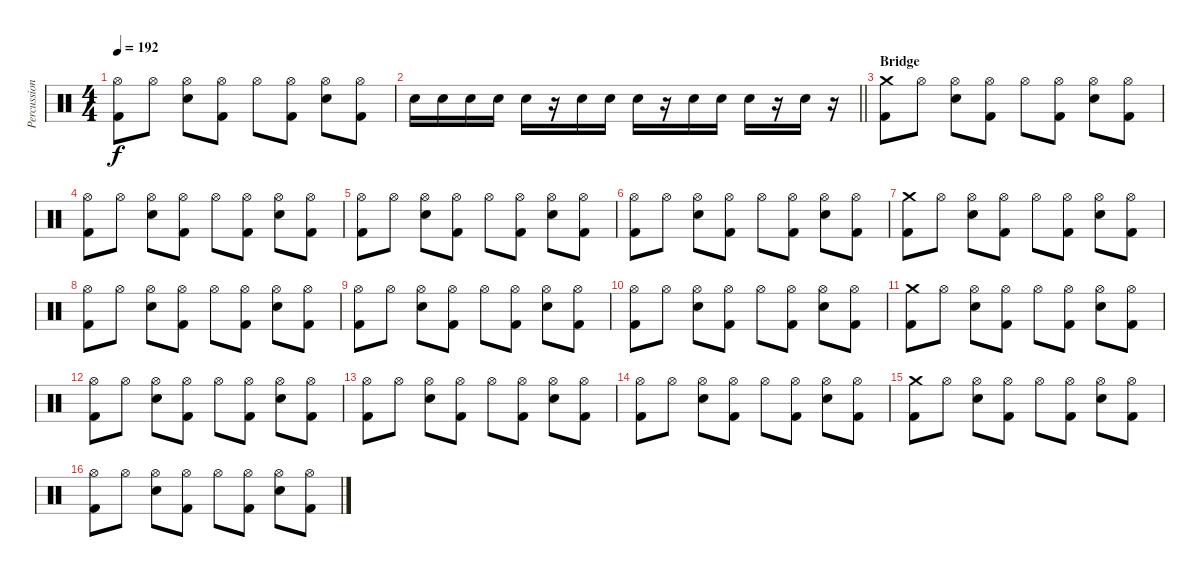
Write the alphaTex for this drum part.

\track ("Percussion" "Percussion") {instrument percussion}
\staff {score}
\articulation defaults
\ts (4 4)
\tempo 192
\clef neutral
\ks c
("Hi-Hat (open)" "Kick (hit) 2").8{dy f} "Hi-Hat (open)".8 ("Hi-Hat (open)" "Electric Snare (hit)").8 ("Hi-Hat (open)" "Kick (hit) 2").8 "Hi-Hat (open)".8 ("Hi-Hat (open)" "Kick (hit) 2").8 ("Hi-Hat (open)" "Electric Snare (hit)").8 ("Hi-Hat (open)" "Kick (hit) 2").8 |
\barLineRight lightlight "Electric Snare (hit)".16 "Electric Snare (hit)".16 "Electric Snare (hit)".16 "Electric Snare (hit)".16 "Electric Snare (hit)".16
r.16 "Electric Snare (hit)".16 "Electric Snare (hit)".16 "Electric Snare (hit)".16 r.16 "Electric Snare (hit)".16 "Electric Snare (hit)".16 "Electric Snare (hit)".16 r.16 "Electric Snare (hit)".16 r.16 |
\section ("" "Bridge")
("Crash medium (hit)" "Kick (hit) 2").8 "Hi-Hat (open)".8 ("Hi-Hat (open)" "Electric Snare (hit)").8 ("Hi-Hat (open)" "Kick (hit) 2").8 "Hi-Hat (open)".8 ("Hi-Hat (open)" "Kick (hit) 2").8 ("Hi-Hat (open)" "Electric Snare (hit)").8 ("Hi-Hat (open)" "Kick (hit) 2").8 |
("Hi-Hat (open)" "Kick (hit) 2").8 "Hi-Hat (open)".8 ("Hi-Hat (open)" "Electric Snare (hit)").8 ("Hi-Hat (open)" "Kick (hit) 2").8 "Hi-Hat (open)".8 ("Hi-Hat (open)" "Kick (hit) 2").8 ("Hi-Hat (open)" "Electric Snare (hit)").8 ("Hi-Hat (open)" "Kick (hit) 2").8 |
("Hi-Hat (open)" "Kick (hit) 2").8 "Hi-Hat (open)".8 ("Hi-Hat (open)" "Electric Snare (hit)").8 ("Hi-Hat (open)" "Kick (hit) 2").8 "Hi-Hat (open)".8 ("Hi-Hat (open)" "Kick (hit) 2").8 ("Hi-Hat (open)" "Electric Snare (hit)").8 ("Hi-Hat (open)" "Kick (hit) 2").8 |
("Hi-Hat (open)" "Kick (hit) 2").8 "Hi-Hat (open)".8 ("Hi-Hat (open)" "Electric Snare (hit)").8 ("Hi-Hat (open)" "Kick (hit) 2").8 "Hi-Hat (open)".8 ("Hi-Hat (open)" "Kick (hit) 2").8 ("Hi-Hat (open)" "Electric Snare (hit)").8 ("Hi-Hat (open)" "Kick (hit) 2").8 |
("Crash medium (hit)" "Kick (hit) 2").8 "Hi-Hat (open)".8 ("Hi-Hat (open)" "Electric Snare (hit)").8 ("Hi-Hat (open)" "Kick (hit) 2").8 "Hi-Hat (open)".8 ("Hi-Hat (open)" "Kick (hit) 2").8 ("Hi-Hat (open)" "Electric Snare (hit)").8 ("Hi-Hat (open)" "Kick (hit) 2").8 |
("Hi-Hat (open)" "Kick (hit) 2").8 "Hi-Hat (open)".8 ("Hi-Hat (open)" "Electric Snare (hit)").8 ("Hi-Hat (open)" "Kick (hit) 2").8 "Hi-Hat (open)".8 ("Hi-Hat (open)" "Kick (hit) 2").8 ("Hi-Hat (open)" "Electric Snare (hit)").8 ("Hi-Hat (open)" "Kick (hit) 2").8 |
("Hi-Hat (open)" "Kick (hit) 2").8 "Hi-Hat (open)".8 ("Hi-Hat (open)" "Electric Snare (hit)").8 ("Hi-Hat (open)" "Kick (hit) 2").8 "Hi-Hat (open)".8 ("Hi-Hat (open)" "Kick (hit) 2").8 ("Hi-Hat (open)" "Electric Snare (hit)").8 ("Hi-Hat (open)" "Kick (hit) 2").8 |
("Hi-Hat (open)" "Kick (hit) 2").8 "Hi-Hat (open)".8 ("Hi-Hat (open)" "Electric Snare (hit)").8 ("Hi-Hat (open)" "Kick (hit) 2").8 "Hi-Hat (open)".8 ("Hi-Hat (open)" "Kick (hit) 2").8 ("Hi-Hat (open)" "Electric Snare (hit)").8 ("Hi-Hat (open)" "Kick (hit) 2").8 |
("Crash medium (hit)" "Kick (hit) 2").8 "Hi-Hat (open)".8 ("Hi-Hat (open)" "Electric Snare (hit)").8 ("Hi-Hat (open)" "Kick (hit) 2").8 "Hi-Hat (open)".8 ("Hi-Hat (open)" "Kick (hit) 2").8 ("Hi-Hat (open)" "Electric Snare (hit)").8 ("Hi-Hat (open)" "Kick (hit) 2").8 |
("Hi-Hat (open)" "Kick (hit) 2").8 "Hi-Hat (open)".8 ("Hi-Hat (open)" "Electric Snare (hit)").8 ("Hi-Hat (open)" "Kick (hit) 2").8 "Hi-Hat (open)".8 ("Hi-Hat (open)" "Kick (hit) 2").8 ("Hi-Hat (open)" "Electric Snare (hit)").8 ("Hi-Hat (open)" "Kick (hit) 2").8 |
("Hi-Hat (open)" "Kick (hit) 2").8 "Hi-Hat (open)".8 ("Hi-Hat (open)" "Electric Snare (hit)").8 ("Hi-Hat (open)" "Kick (hit) 2").8 "Hi-Hat (open)".8 ("Hi-Hat (open)" "Kick (hit) 2").8 ("Hi-Hat (open)" "Electric Snare (hit)").8 ("Hi-Hat (open)" "Kick (hit) 2").8 |
("Hi-Hat (open)" "Kick (hit) 2").8 "Hi-Hat (open)".8 ("Hi-Hat (open)" "Electric Snare (hit)").8 ("Hi-Hat (open)" "Kick (hit) 2").8 "Hi-Hat (open)".8 ("Hi-Hat (open)" "Kick (hit) 2").8 ("Hi-Hat (open)" "Electric Snare (hit)").8 ("Hi-Hat (open)" "Kick (hit) 2").8 |
("Crash medium (hit)" "Kick (hit) 2").8 "Hi-Hat (open)".8 ("Hi-Hat (open)" "Electric Snare (hit)").8 ("Hi-Hat (open)" "Kick (hit) 2").8 "Hi-Hat (open)".8 ("Hi-Hat (open)" "Kick (hit) 2").8 ("Hi-Hat (open)" "Electric Snare (hit)").8 ("Hi-Hat (open)" "Kick (hit) 2").8 |
("Hi-Hat (open)" "Kick (hit) 2").8 "Hi-Hat (open)".8 ("Hi-Hat (open)" "Electric Snare (hit)").8 ("Hi-Hat (open)" "Kick (hit) 2").8 "Hi-Hat (open)".8 ("Hi-Hat (open)" "Kick (hit) 2").8 ("Hi-Hat (open)" "Electric Snare (hit)").8 ("Hi-Hat (open)" "Kick (hit) 2").8
